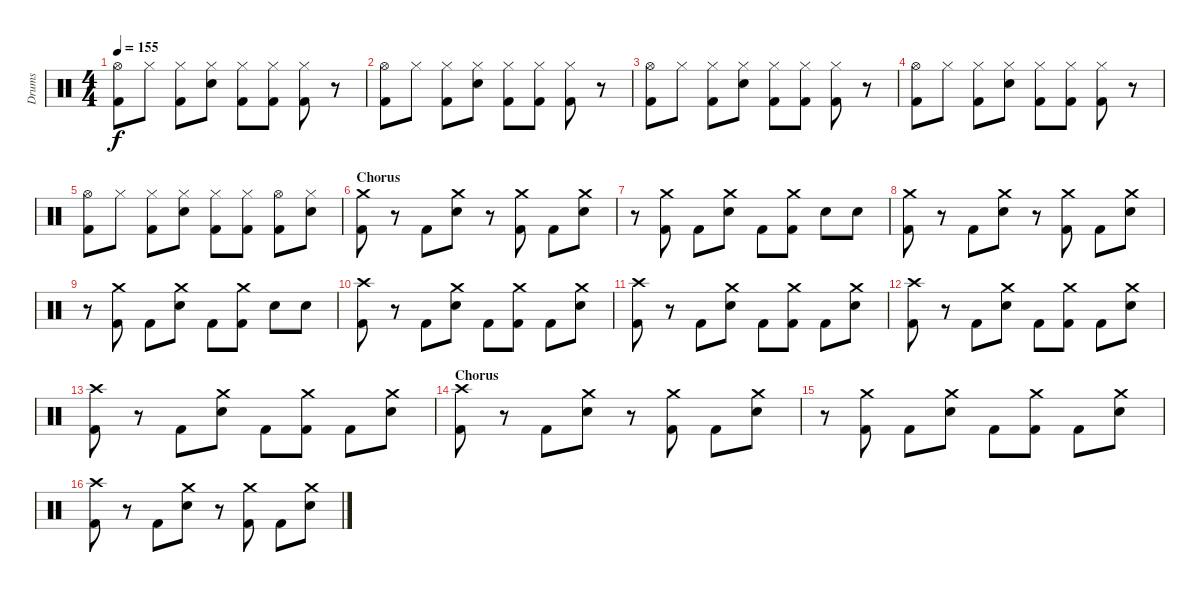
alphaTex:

\track ("Drums" "Drums") {instrument percussion}
\staff {score}
\articulation defaults
\ts (4 4)
\tempo 155
\clef neutral
\ks c
("Kick (hit) 2" "Hi-Hat (open)").8{dy f} "Hi-Hat (closed)".8 ("Kick (hit) 2" "Hi-Hat (closed)").8 ("Electric Snare (hit)" "Hi-Hat (closed)").8 ("Kick (hit) 2" "Hi-Hat (closed)").8 ("Kick (hit) 2" "Hi-Hat (closed)").8 ("Kick (hit) 2" "Hi-Hat (closed)").8 r.8 |
("Kick (hit) 2" "Hi-Hat (open)").8 "Hi-Hat (closed)".8 ("Kick (hit) 2" "Hi-Hat (closed)").8 ("Electric Snare (hit)" "Hi-Hat (closed)").8 ("Kick (hit) 2" "Hi-Hat (closed)").8 ("Kick (hit) 2" "Hi-Hat (closed)").8 ("Kick (hit) 2" "Hi-Hat (closed)").8 r.8 |
("Kick (hit) 2" "Hi-Hat (open)").8 "Hi-Hat (closed)".8 ("Kick (hit) 2" "Hi-Hat (closed)").8 ("Electric Snare (hit)" "Hi-Hat (closed)").8 ("Kick (hit) 2" "Hi-Hat (closed)").8 ("Kick (hit) 2" "Hi-Hat (closed)").8 ("Kick (hit) 2" "Hi-Hat (closed)").8 r.8 |
("Kick (hit) 2" "Hi-Hat (open)").8 "Hi-Hat (closed)".8 ("Kick (hit) 2" "Hi-Hat (closed)").8 ("Electric Snare (hit)" "Hi-Hat (closed)").8 ("Kick (hit) 2" "Hi-Hat (closed)").8 ("Kick (hit) 2" "Hi-Hat (closed)").8 ("Kick (hit) 2" "Hi-Hat (closed)").8 r.8 |
("Kick (hit) 2" "Hi-Hat (open)").8 "Hi-Hat (closed)".8 ("Kick (hit) 2" "Hi-Hat (closed)").8 ("Electric Snare (hit)" "Hi-Hat (closed)").8 ("Kick (hit) 2" "Hi-Hat (closed)").8 ("Kick (hit) 2" "Hi-Hat (closed)").8 ("Kick (hit) 2" "Hi-Hat (open)").8 ("Electric Snare (hit)" "Hi-Hat (closed)").8 |
\section ("" "Chorus")
("Kick (hit) 2" "Crash medium (hit)").8 r.8 "Kick (hit) 2".8 ("Electric Snare (hit)" "Crash medium (hit)").8 r.8 ("Kick (hit) 2" "Crash medium (hit)").8 "Kick (hit) 2".8 ("Electric Snare (hit)" "Crash medium (hit)").8 |
r.8 ("Kick (hit) 2" "Crash medium (hit)").8 "Kick (hit) 2".8 ("Electric Snare (hit)" "Crash medium (hit)").8 "Kick (hit) 2".8 ("Kick (hit) 2" "Crash medium (hit)").8 "Electric Snare (hit)".8 "Electric Snare (hit)".8 |
("Kick (hit) 2" "Crash medium (hit)").8 r.8 "Kick (hit) 2".8 ("Electric Snare (hit)" "Crash medium (hit)").8 r.8 ("Kick (hit) 2" "Crash medium (hit)").8 "Kick (hit) 2".8 ("Electric Snare (hit)" "Crash medium (hit)").8 |
r.8 ("Kick (hit) 2" "Crash medium (hit)").8 "Kick (hit) 2".8 ("Electric Snare (hit)" "Crash medium (hit)").8 "Kick (hit) 2".8 ("Kick (hit) 2" "Crash medium (hit)").8 "Electric Snare (hit)".8 "Electric Snare (hit)".8 |
("Kick (hit) 2" "Crash high (hit)").8 r.8 "Kick (hit) 2".8 ("Electric Snare (hit)" "Crash medium (hit)").8 "Kick (hit) 2".8 ("Kick (hit) 2" "Crash medium (hit)").8 "Kick (hit) 2".8 ("Electric Snare (hit)" "Crash medium (hit)").8 |
("Kick (hit) 2" "Crash high (hit)").8 r.8 "Kick (hit) 2".8 ("Electric Snare (hit)" "Crash medium (hit)").8 "Kick (hit) 2".8 ("Kick (hit) 2" "Crash medium (hit)").8 "Kick (hit) 2".8 ("Electric Snare (hit)" "Crash medium (hit)").8 |
("Kick (hit) 2" "Crash high (hit)").8 r.8 "Kick (hit) 2".8 ("Electric Snare (hit)" "Crash medium (hit)").8 "Kick (hit) 2".8 ("Kick (hit) 2" "Crash medium (hit)").8 "Kick (hit) 2".8 ("Electric Snare (hit)" "Crash medium (hit)").8 |
("Kick (hit) 2" "Crash high (hit)").8 r.8 "Kick (hit) 2".8 ("Electric Snare (hit)" "Crash medium (hit)").8 "Kick (hit) 2".8 ("Kick (hit) 2" "Crash medium (hit)").8 "Kick (hit) 2".8 ("Electric Snare (hit)" "Crash medium (hit)").8 |
\section ("" "Chorus")
("Kick (hit) 2" "Crash high (hit)").8 r.8 "Kick (hit) 2".8 ("Electric Snare (hit)" "Crash medium (hit)").8 r.8 ("Kick (hit) 2" "Crash medium (hit)").8 "Kick (hit) 2".8 ("Electric Snare (hit)" "Crash medium (hit)").8 |
r.8 ("Kick (hit) 2" "Crash medium (hit)").8 "Kick (hit) 2".8 ("Electric Snare (hit)" "Crash medium (hit)").8 "Kick (hit) 2".8 ("Kick (hit) 2" "Crash medium (hit)").8 "Kick (hit) 2".8 ("Electric Snare (hit)" "Crash medium (hit)").8 |
("Kick (hit) 2" "Crash high (hit)").8 r.8 "Kick (hit) 2".8 ("Electric Snare (hit)" "Crash medium (hit)").8 r.8 ("Kick (hit) 2" "Crash medium (hit)").8 "Kick (hit) 2".8 ("Electric Snare (hit)" "Crash medium (hit)").8
